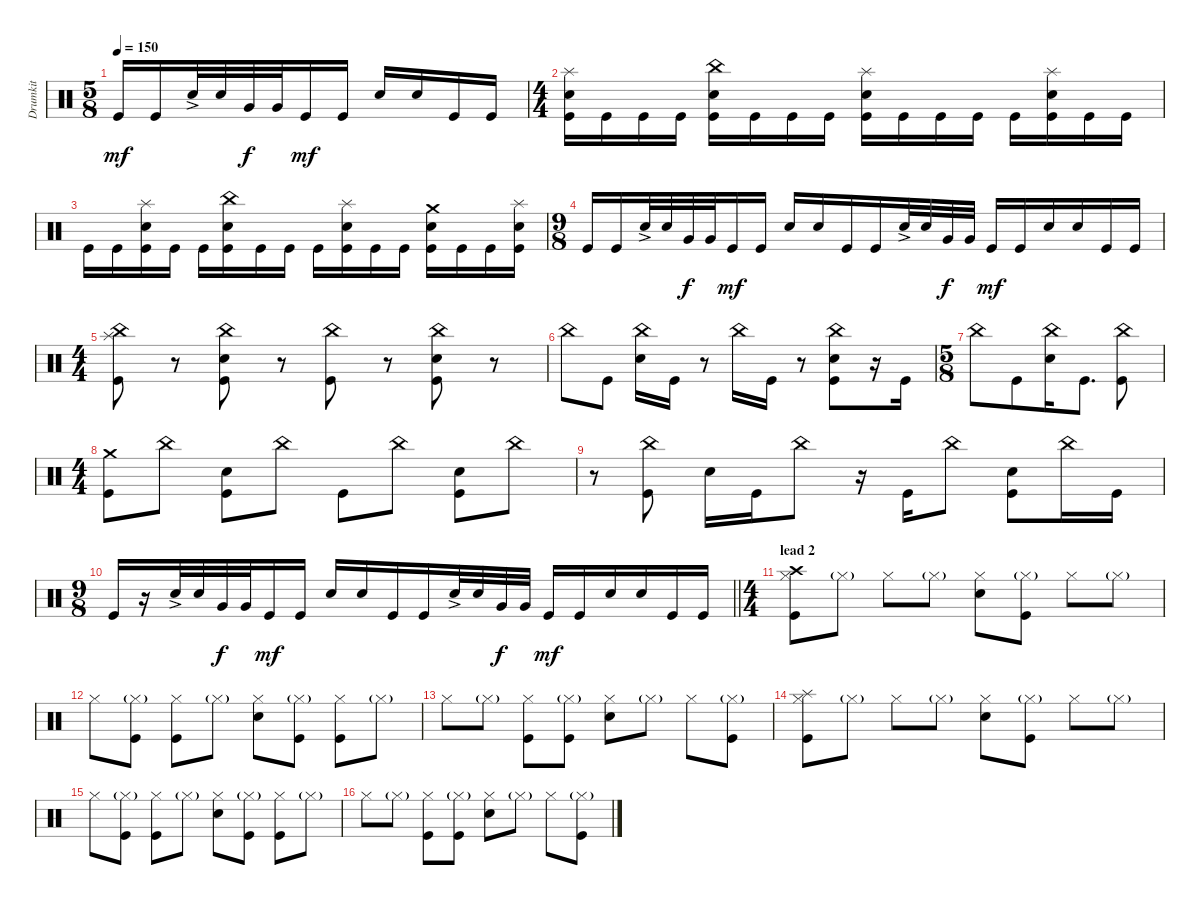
\track ("Drumkit" "Drumkit") {instrument percussion}
\staff {score}
\articulation defaults
\ts (5 8)
\tempo 150
\clef neutral
\ks c "Kick (hit)".16{dy mf} "Kick (hit)".16 "Snare (hit) 2"{ac}.32 "Snare (hit) 2".32 "Very Low Tom (hit)".32{dy f} "Very Low Tom (hit)".32 "Kick (hit)".16{dy mf} "Kick (hit)".16 "Snare (hit) 2".16 "Snare (hit) 2".16 "Kick (hit)".16 "Kick (hit)".16
|
\ts (4 4)
("Kick (hit)" "Snare (hit) 2" "Splash (hit)").16 "Kick (hit)".16 "Kick (hit)".16 "Kick (hit)".16 ("Kick (hit)" "Snare (hit) 2" "China (hit)").16 "Kick (hit)".16 "Kick (hit)".16 "Kick (hit)".16 ("Kick (hit)" "Snare (hit) 2" "Splash (hit)").16 "Kick (hit)".16 "Kick (hit)".16 "Kick (hit)".16 "Kick (hit)".16 ("Kick (hit)" "Snare (hit) 2" "Splash (hit)").16 "Kick (hit)".16 "Kick (hit)".16 |
"Kick (hit)".16 "Kick (hit)".16 ("Kick (hit)" "Snare (hit) 2" "Splash (hit)").16 "Kick (hit)".16 "Kick (hit)".16 ("Kick (hit)" "Snare (hit) 2" "China (hit)").16 "Kick (hit)".16 "Kick (hit)".16 "Kick (hit)".16 ("Kick (hit)" "Snare (hit) 2" "Splash (hit)").16 "Kick (hit)".16 "Kick (hit)".16 ("Kick (hit)" "Snare (hit) 2" "Crash medium (hit)").16 "Kick (hit)".16 "Kick (hit)".16 ("Kick (hit)" "Snare (hit) 2" "Splash (hit)").16 |
\ts (9 8)
"Kick (hit)".16 "Kick (hit)".16 "Snare (hit) 2"{ac}.32 "Snare (hit) 2".32 "Very Low Tom (hit)".32{dy f} "Very Low Tom (hit)".32 "Kick (hit)".16{dy mf} "Kick (hit)".16 "Snare (hit) 2".16 "Snare (hit) 2".16 "Kick (hit)".16 "Kick (hit)".16 "Snare (hit) 2"{ac}.32 "Snare (hit) 2".32 "Very Low Tom (hit)".32{dy f} "Very Low Tom (hit)".32 "Kick (hit)".16{dy mf} "Kick (hit)".16 "Snare (hit) 2".16 "Snare (hit) 2".16 "Kick (hit)".16 "Kick (hit)".16 |
\ts (4 4)
("China (hit)" "Splash (hit)" "Kick (hit)").8 r.8 ("China (hit)" "Snare (hit) 2" "Kick (hit)").8 r.8 ("China (hit)" "Kick (hit)").8 r.8 ("China (hit)" "Snare (hit) 2" "Kick (hit)").8 r.8 |
"China (hit)".8 "Kick (hit)".8 ("China (hit)" "Snare (hit) 2").16 "Kick (hit)".16 r.8 "China (hit)".16 "Kick (hit)".16 r.8 ("China (hit)" "Snare (hit) 2" "Kick (hit)").8 r.16 "Kick (hit)".16 |
\ts (5 8)
"China (hit)".8 "Kick (hit)".8 ("China (hit)" "Snare (hit) 2").16 "Kick (hit)".8{d} ("China (hit)" "Kick (hit)").8 |
\ts (4 4)
("Kick (hit)" "Crash medium (hit)").8 "China (hit)".8 ("Kick (hit)" "Snare (hit) 2").8 "China (hit)".8 "Kick (hit)".8 "China (hit)".8 ("Kick (hit)" "Snare (hit) 2").8 "China (hit)".8 |
r.8 ("China (hit)" "Kick (hit)").8 "Snare (hit) 2".16 "Kick (hit)".16 "China (hit)".8 r.16 "Kick (hit)".16 "China (hit)".8 ("Snare (hit) 2" "Kick (hit)").8 "China (hit)".16 "Kick (hit)".16 |
\ts (9 8)
\barLineRight lightlight "Kick (hit)".16
r.16 "Snare (hit) 2"{ac}.32 "Snare (hit) 2".32 "Very Low Tom (hit)".32{dy f} "Very Low Tom (hit)".32 "Kick (hit)".16{dy mf} "Kick (hit)".16 "Snare (hit) 2".16 "Snare (hit) 2".16 "Kick (hit)".16 "Kick (hit)".16 "Snare (hit) 2"{ac}.32 "Snare (hit) 2".32 "Very Low Tom (hit)".32{dy f} "Very Low Tom (hit)".32 "Kick (hit)".16{dy mf} "Kick (hit)".16 "Snare (hit) 2".16 "Snare (hit) 2".16 "Kick (hit)".16 "Kick (hit)".16 |
\ts (4 4)
\section ("" "lead 2")
("Hi-Hat (closed)" "Crash high (hit)" "Kick (hit)").8 "Hi-Hat (closed)"{g}.8 "Hi-Hat (closed)".8 "Hi-Hat (closed)"{g}.8 ("Hi-Hat (closed)" "Snare (hit) 2").8 ("Hi-Hat (closed)"{g} "Kick (hit)").8 "Hi-Hat (closed)".8 "Hi-Hat (closed)"{g}.8 |
"Hi-Hat (closed)".8 ("Hi-Hat (closed)"{g} "Kick (hit)").8 ("Hi-Hat (closed)" "Kick (hit)").8 "Hi-Hat (closed)"{g}.8 ("Hi-Hat (closed)" "Snare (hit) 2").8 ("Hi-Hat (closed)"{g} "Kick (hit)").8 ("Hi-Hat (closed)" "Kick (hit)").8 "Hi-Hat (closed)"{g}.8 |
"Hi-Hat (closed)".8 "Hi-Hat (closed)"{g}.8 ("Hi-Hat (closed)" "Kick (hit)").8 ("Hi-Hat (closed)"{g} "Kick (hit)").8 ("Hi-Hat (closed)" "Snare (hit) 2").8 "Hi-Hat (closed)"{g}.8 "Hi-Hat (closed)".8 ("Hi-Hat (closed)"{g} "Kick (hit)").8 |
("Hi-Hat (closed)" "Kick (hit)" "Splash (hit)").8 "Hi-Hat (closed)"{g}.8 "Hi-Hat (closed)".8 "Hi-Hat (closed)"{g}.8 ("Hi-Hat (closed)" "Snare (hit) 2").8 ("Hi-Hat (closed)"{g} "Kick (hit)").8 "Hi-Hat (closed)".8 "Hi-Hat (closed)"{g}.8 |
"Hi-Hat (closed)".8 ("Hi-Hat (closed)"{g} "Kick (hit)").8 ("Hi-Hat (closed)" "Kick (hit)").8 "Hi-Hat (closed)"{g}.8 ("Hi-Hat (closed)" "Snare (hit) 2").8 ("Hi-Hat (closed)"{g} "Kick (hit)").8 ("Hi-Hat (closed)" "Kick (hit)").8 "Hi-Hat (closed)"{g}.8 |
"Hi-Hat (closed)".8 "Hi-Hat (closed)"{g}.8 ("Hi-Hat (closed)" "Kick (hit)").8 ("Hi-Hat (closed)"{g} "Kick (hit)").8 ("Hi-Hat (closed)" "Snare (hit) 2").8 "Hi-Hat (closed)"{g}.8 "Hi-Hat (closed)".8 ("Hi-Hat (closed)"{g} "Kick (hit)").8
